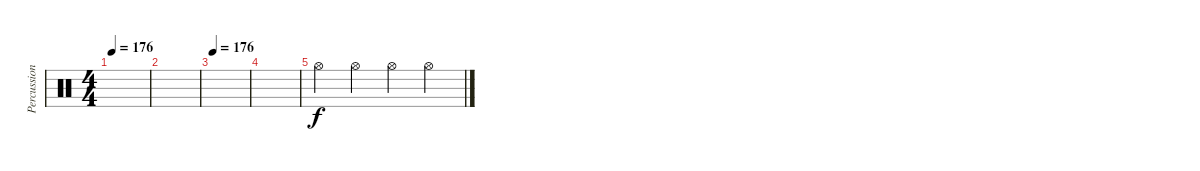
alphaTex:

\track ("Percussion" "Percussion") {instrument percussion}
\staff {score}
\articulation defaults
\ts (4 4)
\tempo 176
\clef neutral
\ks c
|
|
\tempo 176
|
|
"Hi-Hat (open)".4 "Hi-Hat (open)".4 "Hi-Hat (open)".4 "Hi-Hat (open)".4
